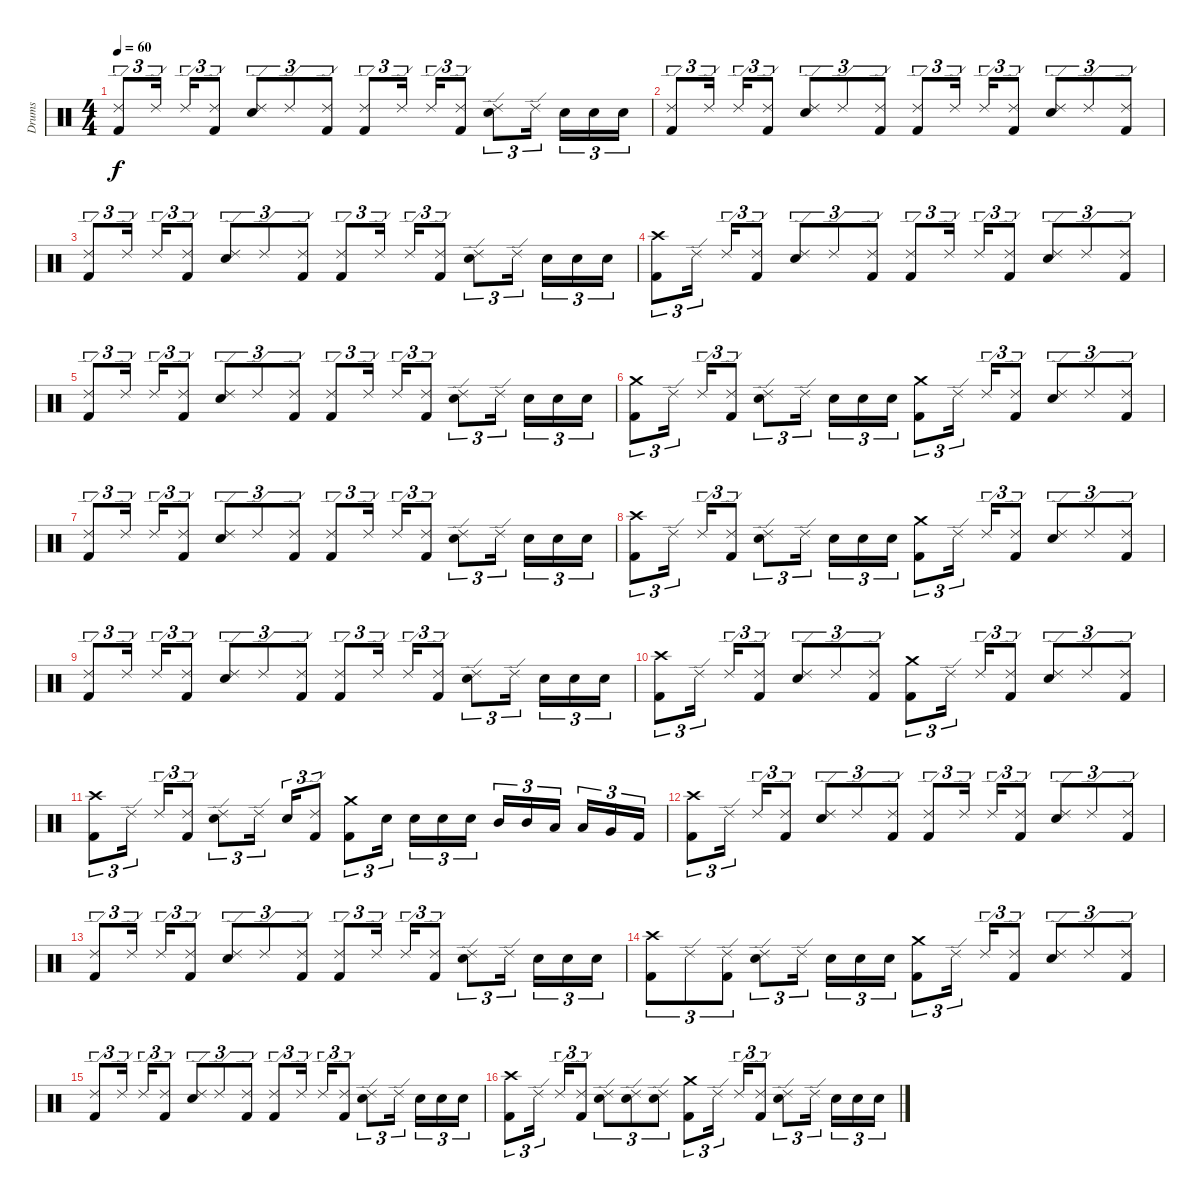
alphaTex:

\track ("Drums" "Drums") {instrument percussion}
\staff {score}
\articulation defaults
\ts (4 4)
\tempo 60
\clef neutral
\ks c
("Ride (edge) 2" "Kick (hit) 2").8{tu (3 2) dy f} "Ride (edge) 2".16{tu (3 2)} "Ride (edge) 2".16{tu (3 2)} ("Ride (edge) 2" "Kick (hit) 2").8{tu (3 2)} ("Ride (edge) 2" "Electric Snare (hit)").8{tu (3 2)} "Ride (edge) 2".8{tu (3 2)} ("Ride (edge) 2" "Kick (hit) 2").8{tu (3 2)} ("Ride (edge) 2" "Kick (hit) 2").8{tu (3 2)} "Ride (edge) 2".16{tu (3 2)} "Ride (edge) 2".16{tu (3 2)} ("Ride (edge) 2" "Kick (hit) 2").8{tu (3 2)} ("Ride (edge) 2" "Electric Snare (hit)").8{tu (3 2)} "Ride (edge) 2".16{tu (3 2)} "Electric Snare (hit)".16{tu (3 2)} "Electric Snare (hit)".16{tu (3 2)} "Electric Snare (hit)".16{tu (3 2)} |
("Ride (edge) 2" "Kick (hit) 2").8{tu (3 2)} "Ride (edge) 2".16{tu (3 2)} "Ride (edge) 2".16{tu (3 2)} ("Ride (edge) 2" "Kick (hit) 2").8{tu (3 2)} ("Ride (edge) 2" "Electric Snare (hit)").8{tu (3 2)} "Ride (edge) 2".8{tu (3 2)} ("Ride (edge) 2" "Kick (hit) 2").8{tu (3 2)} ("Ride (edge) 2" "Kick (hit) 2").8{tu (3 2)} "Ride (edge) 2".16{tu (3 2)} "Ride (edge) 2".16{tu (3 2)} ("Ride (edge) 2" "Kick (hit) 2").8{tu (3 2)} ("Ride (edge) 2" "Electric Snare (hit)").8{tu (3 2)} "Ride (edge) 2".8{tu (3 2)} ("Ride (edge) 2" "Kick (hit) 2").8{tu (3 2)} |
("Ride (edge) 2" "Kick (hit) 2").8{tu (3 2)} "Ride (edge) 2".16{tu (3 2)} "Ride (edge) 2".16{tu (3 2)} ("Ride (edge) 2" "Kick (hit) 2").8{tu (3 2)} ("Ride (edge) 2" "Electric Snare (hit)").8{tu (3 2)} "Ride (edge) 2".8{tu (3 2)} ("Ride (edge) 2" "Kick (hit) 2").8{tu (3 2)} ("Ride (edge) 2" "Kick (hit) 2").8{tu (3 2)} "Ride (edge) 2".16{tu (3 2)} "Ride (edge) 2".16{tu (3 2)} ("Ride (edge) 2" "Kick (hit) 2").8{tu (3 2)} ("Ride (edge) 2" "Electric Snare (hit)").8{tu (3 2)} "Ride (edge) 2".16{tu (3 2)} "Electric Snare (hit)".16{tu (3 2)} "Electric Snare (hit)".16{tu (3 2)} "Electric Snare (hit)".16{tu (3 2)} |
("Crash high (hit)" "Kick (hit) 2").8{tu (3 2)} "Ride (edge) 2".16{tu (3 2)} "Ride (edge) 2".16{tu (3 2)} ("Ride (edge) 2" "Kick (hit) 2").8{tu (3 2)} ("Ride (edge) 2" "Electric Snare (hit)").8{tu (3 2)} "Ride (edge) 2".8{tu (3 2)} ("Ride (edge) 2" "Kick (hit) 2").8{tu (3 2)} ("Ride (edge) 2" "Kick (hit) 2").8{tu (3 2)} "Ride (edge) 2".16{tu (3 2)} "Ride (edge) 2".16{tu (3 2)} ("Ride (edge) 2" "Kick (hit) 2").8{tu (3 2)} ("Ride (edge) 2" "Electric Snare (hit)").8{tu (3 2)} "Ride (edge) 2".8{tu (3 2)} ("Ride (edge) 2" "Kick (hit) 2").8{tu (3 2)} |
("Ride (edge) 2" "Kick (hit) 2").8{tu (3 2)} "Ride (edge) 2".16{tu (3 2)} "Ride (edge) 2".16{tu (3 2)} ("Ride (edge) 2" "Kick (hit) 2").8{tu (3 2)} ("Ride (edge) 2" "Electric Snare (hit)").8{tu (3 2)} "Ride (edge) 2".8{tu (3 2)} ("Ride (edge) 2" "Kick (hit) 2").8{tu (3 2)} ("Ride (edge) 2" "Kick (hit) 2").8{tu (3 2)} "Ride (edge) 2".16{tu (3 2)} "Ride (edge) 2".16{tu (3 2)} ("Ride (edge) 2" "Kick (hit) 2").8{tu (3 2)} ("Ride (edge) 2" "Electric Snare (hit)").8{tu (3 2)} "Ride (edge) 2".16{tu (3 2)} "Electric Snare (hit)".16{tu (3 2)} "Electric Snare (hit)".16{tu (3 2)} "Electric Snare (hit)".16{tu (3 2)} |
("Crash medium (hit)" "Kick (hit) 2").8{tu (3 2)} "Ride (edge) 2".16{tu (3 2)} "Ride (edge) 2".16{tu (3 2)} ("Ride (edge) 2" "Kick (hit) 2").8{tu (3 2)} ("Ride (edge) 2" "Electric Snare (hit)").8{tu (3 2)} "Ride (edge) 2".16{tu (3 2)} "Electric Snare (hit)".16{tu (3 2)} "Electric Snare (hit)".16{tu (3 2)} "Electric Snare (hit)".16{tu (3 2)} ("Crash medium (hit)" "Kick (hit) 2").8{tu (3 2)} "Ride (edge) 2".16{tu (3 2)} "Ride (edge) 2".16{tu (3 2)} ("Ride (edge) 2" "Kick (hit) 2").8{tu (3 2)} ("Ride (edge) 2" "Electric Snare (hit)").8{tu (3 2)} "Ride (edge) 2".8{tu (3 2)} ("Ride (edge) 2" "Kick (hit) 2").8{tu (3 2)} |
("Ride (edge) 2" "Kick (hit) 2").8{tu (3 2)} "Ride (edge) 2".16{tu (3 2)} "Ride (edge) 2".16{tu (3 2)} ("Ride (edge) 2" "Kick (hit) 2").8{tu (3 2)} ("Ride (edge) 2" "Electric Snare (hit)").8{tu (3 2)} "Ride (edge) 2".8{tu (3 2)} ("Ride (edge) 2" "Kick (hit) 2").8{tu (3 2)} ("Ride (edge) 2" "Kick (hit) 2").8{tu (3 2)} "Ride (edge) 2".16{tu (3 2)} "Ride (edge) 2".16{tu (3 2)} ("Ride (edge) 2" "Kick (hit) 2").8{tu (3 2)} ("Ride (edge) 2" "Electric Snare (hit)").8{tu (3 2)} "Ride (edge) 2".16{tu (3 2)} "Electric Snare (hit)".16{tu (3 2)} "Electric Snare (hit)".16{tu (3 2)} "Electric Snare (hit)".16{tu (3 2)} |
("Crash high (hit)" "Kick (hit) 2").8{tu (3 2)} "Ride (edge) 2".16{tu (3 2)} "Ride (edge) 2".16{tu (3 2)} ("Ride (edge) 2" "Kick (hit) 2").8{tu (3 2)} ("Ride (edge) 2" "Electric Snare (hit)").8{tu (3 2)} "Ride (edge) 2".16{tu (3 2)} "Electric Snare (hit)".16{tu (3 2)} "Electric Snare (hit)".16{tu (3 2)} "Electric Snare (hit)".16{tu (3 2)} ("Crash medium (hit)" "Kick (hit) 2").8{tu (3 2)} "Ride (edge) 2".16{tu (3 2)} "Ride (edge) 2".16{tu (3 2)} ("Ride (edge) 2" "Kick (hit) 2").8{tu (3 2)} ("Ride (edge) 2" "Electric Snare (hit)").8{tu (3 2)} "Ride (edge) 2".8{tu (3 2)} ("Ride (edge) 2" "Kick (hit) 2").8{tu (3 2)} |
("Ride (edge) 2" "Kick (hit) 2").8{tu (3 2)} "Ride (edge) 2".16{tu (3 2)} "Ride (edge) 2".16{tu (3 2)} ("Ride (edge) 2" "Kick (hit) 2").8{tu (3 2)} ("Ride (edge) 2" "Electric Snare (hit)").8{tu (3 2)} "Ride (edge) 2".8{tu (3 2)} ("Ride (edge) 2" "Kick (hit) 2").8{tu (3 2)} ("Ride (edge) 2" "Kick (hit) 2").8{tu (3 2)} "Ride (edge) 2".16{tu (3 2)} "Ride (edge) 2".16{tu (3 2)} ("Ride (edge) 2" "Kick (hit) 2").8{tu (3 2)} ("Ride (edge) 2" "Electric Snare (hit)").8{tu (3 2)} "Ride (edge) 2".16{tu (3 2)} "Electric Snare (hit)".16{tu (3 2)} "Electric Snare (hit)".16{tu (3 2)} "Electric Snare (hit)".16{tu (3 2)} |
("Crash high (hit)" "Kick (hit) 2").8{tu (3 2)} "Ride (edge) 2".16{tu (3 2)} "Ride (edge) 2".16{tu (3 2)} ("Ride (edge) 2" "Kick (hit) 2").8{tu (3 2)} ("Ride (edge) 2" "Electric Snare (hit)").8{tu (3 2)} "Ride (edge) 2".8{tu (3 2)} ("Ride (edge) 2" "Kick (hit) 2").8{tu (3 2)} ("Crash medium (hit)" "Kick (hit) 2").8{tu (3 2)} "Ride (edge) 2".16{tu (3 2)} "Ride (edge) 2".16{tu (3 2)} ("Ride (edge) 2" "Kick (hit) 2").8{tu (3 2)} ("Ride (edge) 2" "Electric Snare (hit)").8{tu (3 2)} "Ride (edge) 2".8{tu (3 2)} ("Ride (edge) 2" "Kick (hit) 2").8{tu (3 2)} |
("Crash high (hit)" "Kick (hit) 2").8{tu (3 2)} "Ride (edge) 2".16{tu (3 2)} "Ride (edge) 2".16{tu (3 2)} ("Ride (edge) 2" "Kick (hit) 2").8{tu (3 2)} ("Ride (edge) 2" "Electric Snare (hit)").8{tu (3 2)} "Ride (edge) 2".16{tu (3 2)} "Electric Snare (hit)".16{tu (3 2)} ("Ride (edge) 2" "Kick (hit) 2").8{tu (3 2)} ("Crash medium (hit)" "Kick (hit) 2").8{tu (3 2)} "Electric Snare (hit)".16{tu (3 2)} "Electric Snare (hit)".16{tu (3 2)} "Electric Snare (hit)".16{tu (3 2)} "Electric Snare (hit)".16{tu (3 2)} "Mid Tom (hit)".16{tu (3 2)} "Mid Tom (hit)".16{tu (3 2)} "Low Tom (hit)".16{tu (3 2)} "Low Tom (hit)".16{tu (3 2)} "Very Low Tom (hit)".16{tu (3 2)} "Kick (hit) 2".16{tu (3 2)} |
("Crash high (hit)" "Kick (hit) 2").8{tu (3 2)} "Ride (edge) 2".16{tu (3 2)} "Ride (edge) 2".16{tu (3 2)} ("Ride (edge) 2" "Kick (hit) 2").8{tu (3 2)} ("Ride (edge) 2" "Electric Snare (hit)").8{tu (3 2)} "Ride (edge) 2".8{tu (3 2)} ("Ride (edge) 2" "Kick (hit) 2").8{tu (3 2)} ("Ride (edge) 2" "Kick (hit) 2").8{tu (3 2)} "Ride (edge) 2".16{tu (3 2)} "Ride (edge) 2".16{tu (3 2)} ("Ride (edge) 2" "Kick (hit) 2").8{tu (3 2)} ("Ride (edge) 2" "Electric Snare (hit)").8{tu (3 2)} "Ride (edge) 2".8{tu (3 2)} ("Ride (edge) 2" "Kick (hit) 2").8{tu (3 2)} |
("Ride (edge) 2" "Kick (hit) 2").8{tu (3 2)} "Ride (edge) 2".16{tu (3 2)} "Ride (edge) 2".16{tu (3 2)} ("Ride (edge) 2" "Kick (hit) 2").8{tu (3 2)} ("Ride (edge) 2" "Electric Snare (hit)").8{tu (3 2)} "Ride (edge) 2".8{tu (3 2)} ("Ride (edge) 2" "Kick (hit) 2").8{tu (3 2)} ("Ride (edge) 2" "Kick (hit) 2").8{tu (3 2)} "Ride (edge) 2".16{tu (3 2)} "Ride (edge) 2".16{tu (3 2)} ("Ride (edge) 2" "Kick (hit) 2").8{tu (3 2)} ("Ride (edge) 2" "Electric Snare (hit)").8{tu (3 2)} "Ride (edge) 2".16{tu (3 2)} "Electric Snare (hit)".16{tu (3 2)} "Electric Snare (hit)".16{tu (3 2)} "Electric Snare (hit)".16{tu (3 2)} |
("Crash high (hit)" "Kick (hit) 2").8{tu (3 2)} "Ride (edge) 2".8{tu (3 2)} ("Ride (edge) 2" "Kick (hit) 2").8{tu (3 2)} ("Ride (edge) 2" "Electric Snare (hit)").8{tu (3 2)} "Ride (edge) 2".16{tu (3 2)} "Electric Snare (hit)".16{tu (3 2)} "Electric Snare (hit)".16{tu (3 2)} "Electric Snare (hit)".16{tu (3 2)} ("Crash medium (hit)" "Kick (hit) 2").8{tu (3 2)} "Ride (edge) 2".16{tu (3 2)} "Ride (edge) 2".16{tu (3 2)} ("Ride (edge) 2" "Kick (hit) 2").8{tu (3 2)} ("Ride (edge) 2" "Electric Snare (hit)").8{tu (3 2)} "Ride (edge) 2".8{tu (3 2)} ("Ride (edge) 2" "Kick (hit) 2").8{tu (3 2)} |
("Ride (edge) 2" "Kick (hit) 2").8{tu (3 2)} "Ride (edge) 2".16{tu (3 2)} "Ride (edge) 2".16{tu (3 2)} ("Ride (edge) 2" "Kick (hit) 2").8{tu (3 2)} ("Ride (edge) 2" "Electric Snare (hit)").8{tu (3 2)} "Ride (edge) 2".8{tu (3 2)} ("Ride (edge) 2" "Kick (hit) 2").8{tu (3 2)} ("Ride (edge) 2" "Kick (hit) 2").8{tu (3 2)} "Ride (edge) 2".16{tu (3 2)} "Ride (edge) 2".16{tu (3 2)} ("Ride (edge) 2" "Kick (hit) 2").8{tu (3 2)} ("Ride (edge) 2" "Electric Snare (hit)").8{tu (3 2)} "Ride (edge) 2".16{tu (3 2)} "Electric Snare (hit)".16{tu (3 2)} "Electric Snare (hit)".16{tu (3 2)} "Electric Snare (hit)".16{tu (3 2)} |
("Crash high (hit)" "Kick (hit) 2").8{tu (3 2)} "Ride (edge) 2".16{tu (3 2)} "Ride (edge) 2".16{tu (3 2)} ("Ride (edge) 2" "Kick (hit) 2").8{tu (3 2)} ("Ride (edge) 2" "Electric Snare (hit)").8{tu (3 2)} ("Ride (edge) 2" "Electric Snare (hit)").8{tu (3 2)} ("Ride (edge) 2" "Electric Snare (hit)").8{tu (3 2)} ("Crash medium (hit)" "Kick (hit) 2").8{tu (3 2)} "Ride (edge) 2".16{tu (3 2)} "Ride (edge) 2".16{tu (3 2)} ("Ride (edge) 2" "Kick (hit) 2").8{tu (3 2)} ("Ride (edge) 2" "Electric Snare (hit)").8{tu (3 2)} "Ride (edge) 2".16{tu (3 2)} "Electric Snare (hit)".16{tu (3 2)} "Electric Snare (hit)".16{tu (3 2)} "Electric Snare (hit)".16{tu (3 2)}
